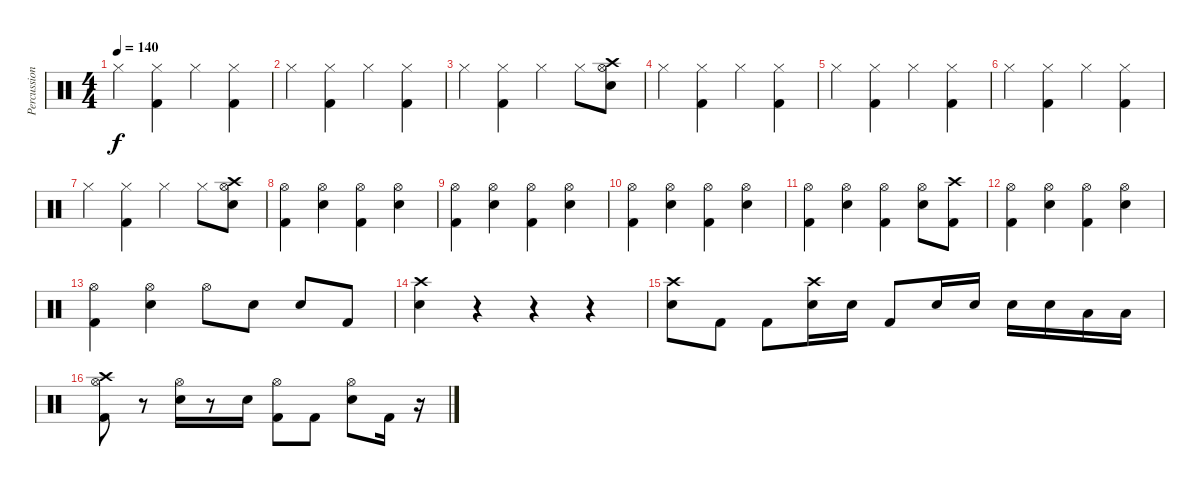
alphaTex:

\track ("Percussion" "Percussion") {instrument percussion}
\staff {score}
\articulation defaults
\ts (4 4)
\tempo 140
\clef neutral
\ks c "Hi-Hat (closed)".4{dy f}
("Hi-Hat (closed)" "Kick (hit) 2").4 "Hi-Hat (closed)".4 ("Hi-Hat (closed)" "Kick (hit) 2").4 |
"Hi-Hat (closed)".4 ("Hi-Hat (closed)" "Kick (hit) 2").4 "Hi-Hat (closed)".4 ("Hi-Hat (closed)" "Kick (hit) 2").4 |
"Hi-Hat (closed)".4 ("Hi-Hat (closed)" "Kick (hit) 2").4 "Hi-Hat (closed)".4 "Hi-Hat (closed)".8 ("Crash high (hit)" "Hi-Hat (open)" "Electric Snare (hit)").8 |
"Hi-Hat (closed)".4 ("Hi-Hat (closed)" "Kick (hit) 2").4 "Hi-Hat (closed)".4 ("Hi-Hat (closed)" "Kick (hit) 2").4 |
"Hi-Hat (closed)".4 ("Hi-Hat (closed)" "Kick (hit) 2").4 "Hi-Hat (closed)".4 ("Hi-Hat (closed)" "Kick (hit) 2").4 |
"Hi-Hat (closed)".4 ("Hi-Hat (closed)" "Kick (hit) 2").4 "Hi-Hat (closed)".4 ("Hi-Hat (closed)" "Kick (hit) 2").4 |
"Hi-Hat (closed)".4 ("Hi-Hat (closed)" "Kick (hit) 2").4 "Hi-Hat (closed)".4 "Hi-Hat (closed)".8 ("Crash high (hit)" "Hi-Hat (open)" "Electric Snare (hit)").8 |
("Hi-Hat (open)" "Kick (hit) 2").4 ("Hi-Hat (open)" "Electric Snare (hit)").4 ("Hi-Hat (open)" "Kick (hit) 2").4 ("Hi-Hat (open)" "Electric Snare (hit)").4 |
("Hi-Hat (open)" "Kick (hit) 2").4 ("Hi-Hat (open)" "Electric Snare (hit)").4 ("Hi-Hat (open)" "Kick (hit) 2").4 ("Hi-Hat (open)" "Electric Snare (hit)").4 |
("Hi-Hat (open)" "Kick (hit) 2").4 ("Hi-Hat (open)" "Electric Snare (hit)").4 ("Hi-Hat (open)" "Kick (hit) 2").4 ("Hi-Hat (open)" "Electric Snare (hit)").4 |
("Hi-Hat (open)" "Kick (hit) 2").4 ("Hi-Hat (open)" "Electric Snare (hit)").4 ("Hi-Hat (open)" "Kick (hit) 2").4 ("Hi-Hat (open)" "Electric Snare (hit)").8 ("Crash high (hit)" "Kick (hit) 2").8 |
("Hi-Hat (open)" "Kick (hit) 2").4 ("Hi-Hat (open)" "Electric Snare (hit)").4 ("Hi-Hat (open)" "Kick (hit) 2").4 ("Hi-Hat (open)" "Electric Snare (hit)").4 |
("Hi-Hat (open)" "Kick (hit) 2").4 ("Hi-Hat (open)" "Electric Snare (hit)").4 "Hi-Hat (open)".8 "Electric Snare (hit)".8 "Electric Snare (hit)".8 "Kick (hit) 2".8 |
("Crash high (hit)" "Electric Snare (hit)").4 r.4 r.4 r.4 |
("Crash high (hit)" "Electric Snare (hit)").8 "Kick (hit) 2".8 "Kick (hit) 2".8 ("Crash high (hit)" "Electric Snare (hit)").16 "Electric Snare (hit)".16 "Kick (hit) 2".8 "Electric Snare (hit)".16 "Electric Snare (hit)".16 "Electric Snare (hit)".16 "Electric Snare (hit)".16 "Low Tom (hit)".16 "Low Tom (hit)".16 |
("Crash high (hit)" "Hi-Hat (open)" "Kick (hit) 2").8 r.8 ("Hi-Hat (open)" "Electric Snare (hit)").16 r.8 "Electric Snare (hit)".16 ("Hi-Hat (open)" "Kick (hit) 2").8 "Kick (hit) 2".8 ("Hi-Hat (open)" "Electric Snare (hit)").8 "Kick (hit) 2".16 r.16
